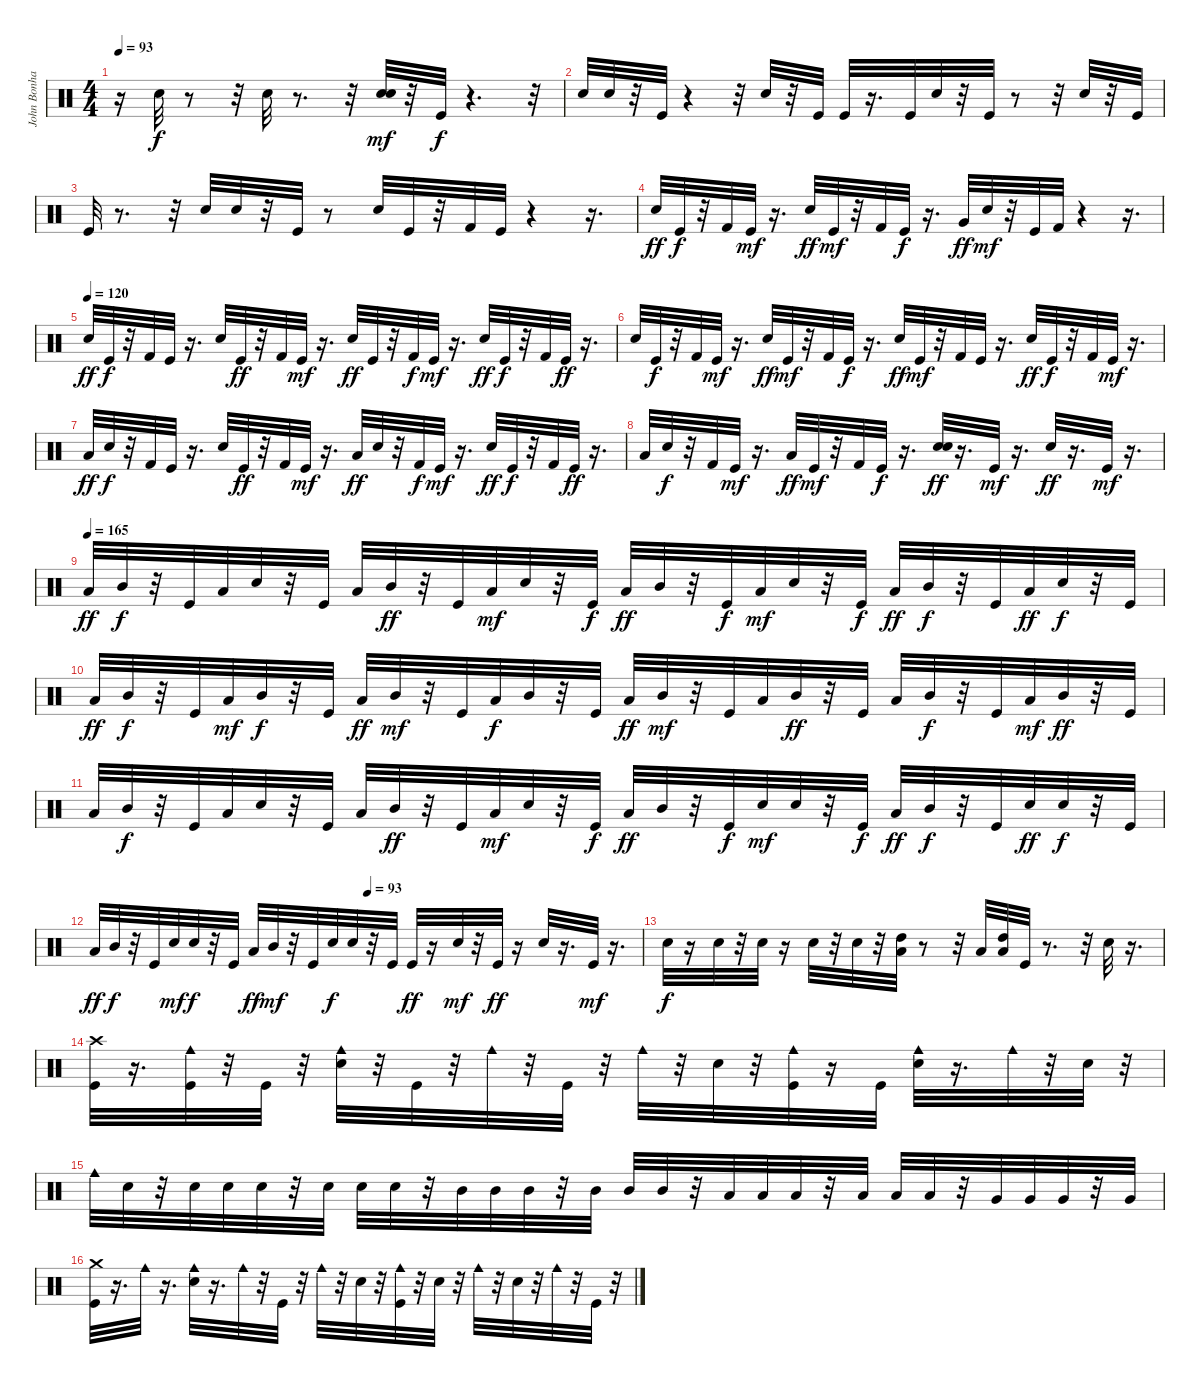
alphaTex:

\track ("John Bonham" "John Bonha") {instrument percussion}
\staff {score}
\articulation defaults
\ts (4 4)
\tempo 93
\clef neutral
\ks c
r.16{dy ff} "Snare (hit) 2".32{dy f} r.8 r.32 "Snare (hit) 2".32 r.8{d} r.32 ("Electric Snare (hit)" "Snare (hit) 2").32{dy mf} r.32 "Kick (hit)".32{dy f} r.4{d} r.32 |
"Electric Snare (hit)".32 "Snare (hit) 2".32 r.32 "Kick (hit)".32 r.4 r.32 "Snare (hit) 2".32 r.32 "Kick (hit)".32 "Kick (hit)".32 r.16{d} "Kick (hit)".32 "Snare (hit) 2".32 r.32 "Kick (hit)".32 r.8 r.32 "Snare (hit) 2".32 r.32 "Kick (hit)".32 |
"Kick (hit)".32 r.8{d} r.32 "Snare (hit) 2".32 "Snare (hit) 2".32 r.32 "Kick (hit)".32 r.8 "Snare (hit) 2".32 "Kick (hit)".32 r.32 "Kick (hit) 2".32 "Kick (hit)".32 r.4 r.16{d} |
"Snare (hit) 2".32{dy ff} "Kick (hit)".32{dy f} r.32 "Kick (hit) 2".32 "Kick (hit)".32{dy mf} r.16{d} "Snare (hit) 2".32{dy ff} "Kick (hit)".32{dy mf} r.32 "Kick (hit) 2".32 "Kick (hit)".32{dy f} r.16{d} "Very Low Tom (hit)".32{dy ff} "Snare (hit) 2".32{dy mf} r.32 "Kick (hit)".32 "Kick (hit) 2".32 r.4 r.16{d} |
\tempo (120)
"Snare (hit) 2".32{dy ff} "Kick (hit)".32{dy f} r.32 "Kick (hit) 2".32 "Kick (hit)".32 r.16{d} "Snare (hit) 2".32 "Kick (hit)".32{dy ff} r.32 "Kick (hit) 2".32 "Kick (hit)".32{dy mf} r.16{d} "Snare (hit) 2".32{dy ff} "Kick (hit)".32 r.32 "Kick (hit) 2".32{dy f} "Kick (hit)".32{dy mf} r.16{d} "Snare (hit) 2".32{dy ff} "Kick (hit)".32{dy f} r.32 "Kick (hit) 2".32 "Kick (hit)".32{dy ff} r.16{d} |
"Snare (hit) 2".32 "Kick (hit)".32{dy f} r.32 "Kick (hit) 2".32 "Kick (hit)".32{dy mf} r.16{d} "Snare (hit) 2".32{dy ff} "Kick (hit)".32{dy mf} r.32 "Kick (hit) 2".32 "Kick (hit)".32{dy f} r.16{d} "Snare (hit) 2".32{dy ff} "Kick (hit)".32{dy mf} r.32 "Kick (hit) 2".32 "Kick (hit)".32 r.16{d} "Snare (hit) 2".32{dy ff} "Kick (hit)".32{dy f} r.32 "Kick (hit) 2".32 "Kick (hit)".32{dy mf} r.16{d} |
"Low Tom (hit)".32{dy ff} "Snare (hit) 2".32{dy f} r.32 "Kick (hit) 2".32 "Kick (hit)".32 r.16{d} "Snare (hit) 2".32 "Kick (hit)".32{dy ff} r.32 "Kick (hit) 2".32 "Kick (hit)".32{dy mf} r.16{d} "Low Tom (hit)".32{dy ff} "Snare (hit) 2".32 r.32 "Kick (hit) 2".32{dy f} "Kick (hit)".32{dy mf} r.16{d} "Snare (hit) 2".32{dy ff} "Kick (hit)".32{dy f} r.32 "Kick (hit) 2".32 "Kick (hit)".32{dy ff} r.16{d} |
"Low Tom (hit)".32 "Snare (hit) 2".32{dy f} r.32 "Kick (hit) 2".32 "Kick (hit)".32{dy mf} r.16{d} "Low Tom (hit)".32{dy ff} "Kick (hit)".32{dy mf} r.32 "Kick (hit) 2".32 "Kick (hit)".32{dy f} r.16{d} ("Electric Snare (hit)" "Snare (hit) 2").32{dy ff} r.16{d} "Kick (hit)".32{dy mf} r.16{d} "Snare (hit) 2".32{dy ff} r.16{d} "Kick (hit)".32{dy mf} r.16{d} |
\tempo (165)
"Low Tom (hit)".32{dy ff} "Mid Tom (hit)".32{dy f} r.32 "Kick (hit)".32 "Low Tom (hit)".32 "Snare (hit) 2".32 r.32 "Kick (hit)".32 "Low Tom (hit)".32 "Mid Tom (hit)".32{dy ff} r.32 "Kick (hit)".32 "Low Tom (hit)".32{dy mf} "Snare (hit) 2".32 r.32 "Kick (hit)".32{dy f} "Low Tom (hit)".32{dy ff} "Mid Tom (hit)".32 r.32 "Kick (hit)".32{dy f} "Low Tom (hit)".32{dy mf} "Snare (hit) 2".32 r.32 "Kick (hit)".32{dy f} "Low Tom (hit)".32{dy ff} "Mid Tom (hit)".32{dy f} r.32 "Kick (hit)".32 "Low Tom (hit)".32{dy ff} "Snare (hit) 2".32{dy f} r.32 "Kick (hit)".32 |
"Low Tom (hit)".32{dy ff} "Mid Tom (hit)".32{dy f} r.32 "Kick (hit)".32 "Low Tom (hit)".32{dy mf} "Mid Tom (hit)".32{dy f} r.32 "Kick (hit)".32 "Low Tom (hit)".32{dy ff} "Mid Tom (hit)".32{dy mf} r.32 "Kick (hit)".32 "Low Tom (hit)".32{dy f} "Mid Tom (hit)".32 r.32 "Kick (hit)".32 "Low Tom (hit)".32{dy ff} "Mid Tom (hit)".32{dy mf} r.32 "Kick (hit)".32 "Low Tom (hit)".32 "Mid Tom (hit)".32{dy ff} r.32 "Kick (hit)".32 "Low Tom (hit)".32 "Mid Tom (hit)".32{dy f} r.32 "Kick (hit)".32 "Low Tom (hit)".32{dy mf} "Mid Tom (hit)".32{dy ff} r.32 "Kick (hit)".32 |
"Low Tom (hit)".32 "Mid Tom (hit)".32{dy f} r.32 "Kick (hit)".32 "Low Tom (hit)".32 "Snare (hit) 2".32 r.32 "Kick (hit)".32 "Low Tom (hit)".32 "Mid Tom (hit)".32{dy ff} r.32 "Kick (hit)".32 "Low Tom (hit)".32{dy mf} "Snare (hit) 2".32 r.32 "Kick (hit)".32{dy f} "Low Tom (hit)".32{dy ff} "Mid Tom (hit)".32 r.32 "Kick (hit)".32{dy f} "Snare (hit) 2".32{dy mf} "Snare (hit) 2".32 r.32 "Kick (hit)".32{dy f} "Low Tom (hit)".32{dy ff} "Mid Tom (hit)".32{dy f} r.32 "Kick (hit)".32 "Snare (hit) 2".32{dy ff} "Snare (hit) 2".32{dy f} r.32 "Kick (hit)".32 |
\tempo (93 0.5)
"Low Tom (hit)".32{dy ff} "Mid Tom (hit)".32{dy f} r.32 "Kick (hit)".32 "Snare (hit) 2".32{dy mf} "Snare (hit) 2".32{dy f} r.32 "Kick (hit)".32 "Low Tom (hit)".32{dy ff} "Mid Tom (hit)".32{dy mf} r.32 "Kick (hit)".32 "Snare (hit) 2".32{dy f} "Snare (hit) 2".32 r.32 "Kick (hit)".32 "Kick (hit)".32{dy ff} r.16 "Snare (hit) 2".32{dy mf} r.32 "Kick (hit)".32{dy ff} r.16 "Snare (hit) 2".32 r.16{d} "Kick (hit)".32{dy mf} r.16{d} |
"Snare (hit) 2".32{dy f} r.16 "Snare (hit) 2".32 r.32 "Snare (hit) 2".32 r.16 "Snare (hit) 2".32 r.32 "Snare (hit) 2".32 r.32 ("Low Tom (hit)" "High Tom (hit)").32 r.8 r.32 "Low Tom (hit)".32 ("High Tom (hit)" "Low Tom (hit)").32 "Kick (hit)".32 r.8{d} r.32 "Snare (hit) 2".32 r.16{d} |
("Kick (hit)" "Crash high (hit)").32 r.16{d} ("Kick (hit)" "Cowbell medium (hit)").32 r.32 "Kick (hit)".32 r.32 ("Electric Snare (hit)" "Cowbell medium (hit)").32 r.32 "Kick (hit)".32 r.32 "Cowbell medium (hit)".32 r.32 "Kick (hit)".32 r.32 "Cowbell medium (hit)".32 r.32 "Electric Snare (hit)".32 r.32 ("Kick (hit)" "Cowbell medium (hit)").32 r.16 "Kick (hit)".32 ("Electric Snare (hit)" "Cowbell medium (hit)").32 r.16{d} "Cowbell medium (hit)".32 r.32 "Snare (hit) 2".32 r.32 |
"Cowbell medium (hit)".32 "Electric Snare (hit)".32 r.32 "Electric Snare (hit)".32 "Electric Snare (hit)".32 "Electric Snare (hit)".32 r.32 "Electric Snare (hit)".32 "Electric Snare (hit)".32 "Electric Snare (hit)".32 r.32 "Mid Tom (hit)".32 "Mid Tom (hit)".32 "Mid Tom (hit)".32 r.32 "Mid Tom (hit)".32 "Mid Tom (hit)".32 "Mid Tom (hit)".32 r.32 "Low Tom (hit)".32 "Low Tom (hit)".32 "Low Tom (hit)".32 r.32 "Low Tom (hit)".32 "Low Tom (hit)".32 "Low Tom (hit)".32 r.32 "Very Low Tom (hit)".32 "Very Low Tom (hit)".32 "Very Low Tom (hit)".32 r.32 "Very Low Tom (hit)".32 |
("Kick (hit)" "Crash medium (hit)").32 r.16{d} "Cowbell medium (hit)".32 r.16{d} ("Cowbell medium (hit)" "Electric Snare (hit)").32 r.16{d} "Cowbell medium (hit)".32 r.32 "Kick (hit)".32 r.32 "Cowbell medium (hit)".32 r.32 "Electric Snare (hit)".32 r.32 ("Cowbell medium (hit)" "Kick (hit)").32 r.32 "Electric Snare (hit)".32 r.32 "Cowbell medium (hit)".32 r.32 "Electric Snare (hit)".32 r.32 "Cowbell medium (hit)".32 r.32 "Kick (hit)".32 r.32
